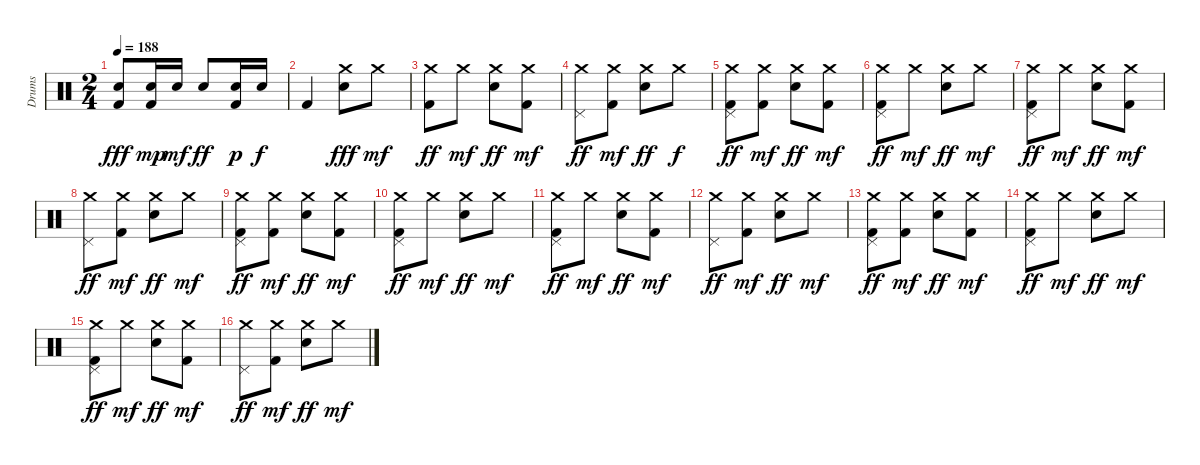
\track ("Drums" "Drums") {instrument percussion}
\staff {score}
\articulation defaults
\ts (2 4)
\tempo 188
\clef neutral
\ks c
("Snare (hit) 2" "Kick (hit) 2").8{dy fff} ("Snare (hit) 2" "Kick (hit) 2").16{dy mp} "Snare (hit) 2".16{dy mf} "Snare (hit) 2".8{dy ff} ("Snare (hit) 2" "Kick (hit) 2").16{dy p} "Snare (hit) 2".16{dy f} |
"Kick (hit) 2".4 ("Crash medium (hit)" "Snare (hit) 2").8{dy fff} "Crash medium (hit)".8{dy mf} |
("Crash medium (hit)" "Kick (hit) 2").8{dy ff} "Crash medium (hit)".8{dy mf} ("Crash medium (hit)" "Snare (hit) 2").8{dy ff} ("Crash medium (hit)" "Kick (hit) 2").8{dy mf} |
("Crash medium (hit)" "Pedal Hi-Hat (hit)").8{dy ff} ("Crash medium (hit)" "Kick (hit) 2").8{dy mf} ("Crash medium (hit)" "Snare (hit) 2").8{dy ff} "Crash medium (hit)".8{dy f} |
("Crash medium (hit)" "Pedal Hi-Hat (hit)" "Kick (hit) 2").8{dy ff} ("Crash medium (hit)" "Kick (hit) 2").8{dy mf} ("Crash medium (hit)" "Snare (hit) 2").8{dy ff} ("Crash medium (hit)" "Kick (hit) 2").8{dy mf} |
("Crash medium (hit)" "Pedal Hi-Hat (hit)" "Kick (hit) 2").8{dy ff} "Crash medium (hit)".8{dy mf} ("Crash medium (hit)" "Snare (hit) 2").8{dy ff} "Crash medium (hit)".8{dy mf} |
("Crash medium (hit)" "Pedal Hi-Hat (hit)" "Kick (hit) 2").8{dy ff} "Crash medium (hit)".8{dy mf} ("Crash medium (hit)" "Snare (hit) 2").8{dy ff} ("Crash medium (hit)" "Kick (hit) 2").8{dy mf} |
("Crash medium (hit)" "Pedal Hi-Hat (hit)").8{dy ff} ("Crash medium (hit)" "Kick (hit) 2").8{dy mf} ("Crash medium (hit)" "Snare (hit) 2").8{dy ff} "Crash medium (hit)".8{dy mf} |
("Crash medium (hit)" "Pedal Hi-Hat (hit)" "Kick (hit) 2").8{dy ff} ("Crash medium (hit)" "Kick (hit) 2").8{dy mf} ("Crash medium (hit)" "Snare (hit) 2").8{dy ff} ("Crash medium (hit)" "Kick (hit) 2").8{dy mf} |
("Crash medium (hit)" "Pedal Hi-Hat (hit)" "Kick (hit) 2").8{dy ff} "Crash medium (hit)".8{dy mf} ("Crash medium (hit)" "Snare (hit) 2").8{dy ff} "Crash medium (hit)".8{dy mf} |
("Crash medium (hit)" "Pedal Hi-Hat (hit)" "Kick (hit) 2").8{dy ff} "Crash medium (hit)".8{dy mf} ("Crash medium (hit)" "Snare (hit) 2").8{dy ff} ("Crash medium (hit)" "Kick (hit) 2").8{dy mf} |
("Crash medium (hit)" "Pedal Hi-Hat (hit)").8{dy ff} ("Crash medium (hit)" "Kick (hit) 2").8{dy mf} ("Crash medium (hit)" "Snare (hit) 2").8{dy ff} "Crash medium (hit)".8{dy mf} |
("Crash medium (hit)" "Pedal Hi-Hat (hit)" "Kick (hit) 2").8{dy ff} ("Crash medium (hit)" "Kick (hit) 2").8{dy mf} ("Crash medium (hit)" "Snare (hit) 2").8{dy ff} ("Crash medium (hit)" "Kick (hit) 2").8{dy mf} |
("Crash medium (hit)" "Pedal Hi-Hat (hit)" "Kick (hit) 2").8{dy ff} "Crash medium (hit)".8{dy mf} ("Crash medium (hit)" "Snare (hit) 2").8{dy ff} "Crash medium (hit)".8{dy mf} |
("Crash medium (hit)" "Pedal Hi-Hat (hit)" "Kick (hit) 2").8{dy ff} "Crash medium (hit)".8{dy mf} ("Crash medium (hit)" "Snare (hit) 2").8{dy ff} ("Crash medium (hit)" "Kick (hit) 2").8{dy mf} |
("Crash medium (hit)" "Pedal Hi-Hat (hit)").8{dy ff} ("Crash medium (hit)" "Kick (hit) 2").8{dy mf} ("Crash medium (hit)" "Snare (hit) 2").8{dy ff} "Crash medium (hit)".8{dy mf}
